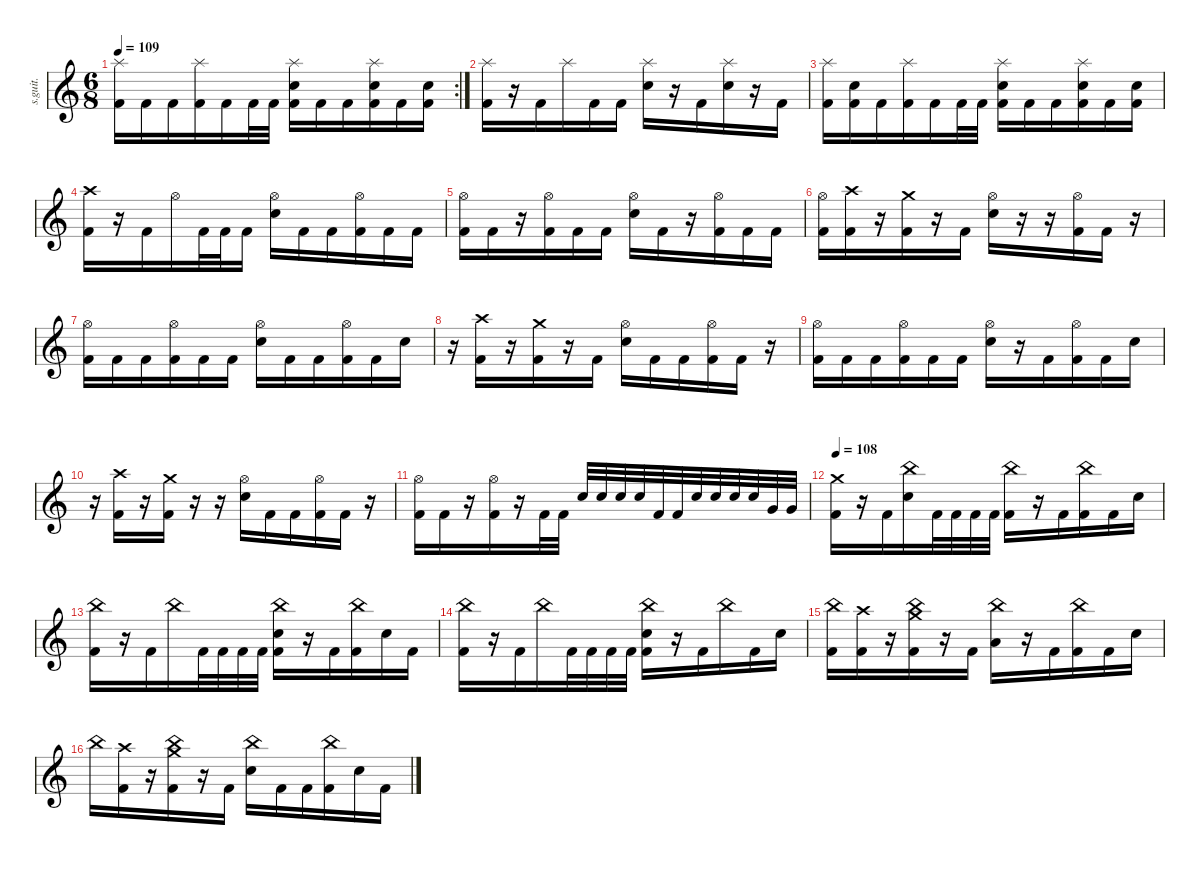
\defaultSystemsLayout 4
\hideDynamics
\bracketExtendMode nobrackets
\track ("Drumkit" "s.guit.") {instrument percussion}
\staff {score}
\articulation defaults
\rc 2
\ts (6 8)
\tempo 109
\clef g2
\ks c
("Splash (hit)" "Kick (hit) 2").16{lyrics (0 "") lyrics (1 "") lyrics (2 "") lyrics (3 "") lyrics (4 "") dy f} "Kick (hit) 2".16{lyrics (0 "") lyrics (1 "") lyrics (2 "") lyrics (3 "") lyrics (4 "")} "Kick (hit) 2".16{lyrics (0 "") lyrics (1 "") lyrics (2 "") lyrics (3 "") lyrics (4 "")} ("Splash (hit)" "Kick (hit) 2").16{lyrics (0 "") lyrics (1 "") lyrics (2 "") lyrics (3 "") lyrics (4 "")} "Kick (hit) 2".16{lyrics (0 "") lyrics (1 "") lyrics (2 "") lyrics (3 "") lyrics (4 "")} "Kick (hit) 2".32{lyrics (0 "") lyrics (1 "") lyrics (2 "") lyrics (3 "") lyrics (4 "")} "Kick (hit) 2".32{lyrics (0 "") lyrics (1 "") lyrics (2 "") lyrics (3 "") lyrics (4 "")} ("Splash (hit)" "Electric Snare (hit)" "Kick (hit) 2").16{lyrics (0 "") lyrics (1 "") lyrics (2 "") lyrics (3 "") lyrics (4 "")} "Kick (hit) 2".16{lyrics (0 "") lyrics (1 "") lyrics (2 "") lyrics (3 "") lyrics (4 "")} "Kick (hit) 2".16{lyrics (0 "") lyrics (1 "") lyrics (2 "") lyrics (3 "") lyrics (4 "")} ("Splash (hit)" "Electric Snare (hit)" "Kick (hit) 2").16{lyrics (0 "") lyrics (1 "") lyrics (2 "") lyrics (3 "") lyrics (4 "")} "Kick (hit) 2".16{lyrics (0 "") lyrics (1 "") lyrics (2 "") lyrics (3 "") lyrics (4 "")} ("Electric Snare (hit)" "Kick (hit) 2").16{lyrics (0 "") lyrics (1 "") lyrics (2 "") lyrics (3 "") lyrics (4 "")} |
("Splash (hit)" "Kick (hit) 2").16{lyrics (0 "") lyrics (1 "") lyrics (2 "") lyrics (3 "") lyrics (4 "")} r.16 "Kick (hit) 2".16{lyrics (0 "") lyrics (1 "") lyrics (2 "") lyrics (3 "") lyrics (4 "")} "Splash (hit)".16{lyrics (0 "") lyrics (1 "") lyrics (2 "") lyrics (3 "") lyrics (4 "")} "Kick (hit) 2".16{lyrics (0 "") lyrics (1 "") lyrics (2 "") lyrics (3 "") lyrics (4 "")} "Kick (hit) 2".16{lyrics (0 "") lyrics (1 "") lyrics (2 "") lyrics (3 "") lyrics (4 "")} ("Splash (hit)" "Electric Snare (hit)").16{lyrics (0 "") lyrics (1 "") lyrics (2 "") lyrics (3 "") lyrics (4 "")} r.16 "Kick (hit) 2".16{lyrics (0 "") lyrics (1 "") lyrics (2 "") lyrics (3 "") lyrics (4 "")} ("Splash (hit)" "Electric Snare (hit)").16{lyrics (0 "") lyrics (1 "") lyrics (2 "") lyrics (3 "") lyrics (4 "")} r.16 "Kick (hit) 2".16{lyrics (0 "") lyrics (1 "") lyrics (2 "") lyrics (3 "") lyrics (4 "")} |
("Splash (hit)" "Kick (hit) 2").16{lyrics (0 "") lyrics (1 "") lyrics (2 "") lyrics (3 "") lyrics (4 "")} ("Electric Snare (hit)" "Kick (hit) 2").16{lyrics (0 "") lyrics (1 "") lyrics (2 "") lyrics (3 "") lyrics (4 "")} "Kick (hit) 2".16{lyrics (0 "") lyrics (1 "") lyrics (2 "") lyrics (3 "") lyrics (4 "")} ("Splash (hit)" "Kick (hit) 2").16{lyrics (0 "") lyrics (1 "") lyrics (2 "") lyrics (3 "") lyrics (4 "")} "Kick (hit) 2".16{lyrics (0 "") lyrics (1 "") lyrics (2 "") lyrics (3 "") lyrics (4 "")} "Kick (hit) 2".32{lyrics (0 "") lyrics (1 "") lyrics (2 "") lyrics (3 "") lyrics (4 "")} "Kick (hit) 2".32{lyrics (0 "") lyrics (1 "") lyrics (2 "") lyrics (3 "") lyrics (4 "")} ("Splash (hit)" "Electric Snare (hit)" "Kick (hit) 2").16{lyrics (0 "") lyrics (1 "") lyrics (2 "") lyrics (3 "") lyrics (4 "")} "Kick (hit) 2".16{lyrics (0 "") lyrics (1 "") lyrics (2 "") lyrics (3 "") lyrics (4 "")} "Kick (hit) 2".16{lyrics (0 "") lyrics (1 "") lyrics (2 "") lyrics (3 "") lyrics (4 "")} ("Splash (hit)" "Electric Snare (hit)" "Kick (hit) 2").16{lyrics (0 "") lyrics (1 "") lyrics (2 "") lyrics (3 "") lyrics (4 "")} "Kick (hit) 2".16{lyrics (0 "") lyrics (1 "") lyrics (2 "") lyrics (3 "") lyrics (4 "")} ("Electric Snare (hit)" "Kick (hit) 2").16{lyrics (0 "") lyrics (1 "") lyrics (2 "") lyrics (3 "") lyrics (4 "")} |
("Crash high (hit)" "Kick (hit) 2").16{lyrics (0 "") lyrics (1 "") lyrics (2 "") lyrics (3 "") lyrics (4 "")} r.16 "Kick (hit) 2".16{lyrics (0 "") lyrics (1 "") lyrics (2 "") lyrics (3 "") lyrics (4 "")} "Hi-Hat (open)".16{lyrics (0 "") lyrics (1 "") lyrics (2 "") lyrics (3 "") lyrics (4 "")} "Kick (hit) 2".32{lyrics (0 "") lyrics (1 "") lyrics (2 "") lyrics (3 "") lyrics (4 "")} "Kick (hit) 2".32{lyrics (0 "") lyrics (1 "") lyrics (2 "") lyrics (3 "") lyrics (4 "")} "Kick (hit) 2".16{lyrics (0 "") lyrics (1 "") lyrics (2 "") lyrics (3 "") lyrics (4 "")} ("Hi-Hat (open)" "Electric Snare (hit)").16{lyrics (0 "") lyrics (1 "") lyrics (2 "") lyrics (3 "") lyrics (4 "")} "Kick (hit) 2".16{lyrics (0 "") lyrics (1 "") lyrics (2 "") lyrics (3 "") lyrics (4 "")} "Kick (hit) 2".16{lyrics (0 "") lyrics (1 "") lyrics (2 "") lyrics (3 "") lyrics (4 "")} ("Hi-Hat (open)" "Kick (hit) 2").16{lyrics (0 "") lyrics (1 "") lyrics (2 "") lyrics (3 "") lyrics (4 "")} "Kick (hit) 2".16{lyrics (0 "") lyrics (1 "") lyrics (2 "") lyrics (3 "") lyrics (4 "")} "Kick (hit) 2".16{lyrics (0 "") lyrics (1 "") lyrics (2 "") lyrics (3 "") lyrics (4 "")} |
("Hi-Hat (open)" "Kick (hit) 2").16{lyrics (0 "") lyrics (1 "") lyrics (2 "") lyrics (3 "") lyrics (4 "")} "Kick (hit) 2".16{lyrics (0 "") lyrics (1 "") lyrics (2 "") lyrics (3 "") lyrics (4 "")} r.16 ("Hi-Hat (open)" "Kick (hit) 2").16{lyrics (0 "") lyrics (1 "") lyrics (2 "") lyrics (3 "") lyrics (4 "")} "Kick (hit) 2".16{lyrics (0 "") lyrics (1 "") lyrics (2 "") lyrics (3 "") lyrics (4 "")} "Kick (hit) 2".16{lyrics (0 "") lyrics (1 "") lyrics (2 "") lyrics (3 "") lyrics (4 "")} ("Hi-Hat (open)" "Electric Snare (hit)").16{lyrics (0 "") lyrics (1 "") lyrics (2 "") lyrics (3 "") lyrics (4 "")} "Kick (hit) 2".16{lyrics (0 "") lyrics (1 "") lyrics (2 "") lyrics (3 "") lyrics (4 "")} r.16 ("Hi-Hat (open)" "Kick (hit) 2").16{lyrics (0 "") lyrics (1 "") lyrics (2 "") lyrics (3 "") lyrics (4 "")} "Kick (hit) 2".16{lyrics (0 "") lyrics (1 "") lyrics (2 "") lyrics (3 "") lyrics (4 "")} "Kick (hit) 2".16{lyrics (0 "") lyrics (1 "") lyrics (2 "") lyrics (3 "") lyrics (4 "")} |
("Hi-Hat (open)" "Kick (hit) 2").16{lyrics (0 "") lyrics (1 "") lyrics (2 "") lyrics (3 "") lyrics (4 "")} ("Crash high (hit)" "Kick (hit) 2").16{lyrics (0 "") lyrics (1 "") lyrics (2 "") lyrics (3 "") lyrics (4 "")} r.16 ("Crash medium (hit)" "Kick (hit) 2").16{lyrics (0 "") lyrics (1 "") lyrics (2 "") lyrics (3 "") lyrics (4 "")} r.16 "Kick (hit) 2".16{lyrics (0 "") lyrics (1 "") lyrics (2 "") lyrics (3 "") lyrics (4 "")} ("Hi-Hat (open)" "Electric Snare (hit)").16{lyrics (0 "") lyrics (1 "") lyrics (2 "") lyrics (3 "") lyrics (4 "")} r.16 r.16 ("Hi-Hat (open)" "Kick (hit) 2").16{lyrics (0 "") lyrics (1 "") lyrics (2 "") lyrics (3 "") lyrics (4 "")} "Kick (hit) 2".16{lyrics (0 "") lyrics (1 "") lyrics (2 "") lyrics (3 "") lyrics (4 "")} r.16 |
("Hi-Hat (open)" "Kick (hit) 2").16{lyrics (0 "") lyrics (1 "") lyrics (2 "") lyrics (3 "") lyrics (4 "")} "Kick (hit) 2".16{lyrics (0 "") lyrics (1 "") lyrics (2 "") lyrics (3 "") lyrics (4 "")} "Kick (hit) 2".16{lyrics (0 "") lyrics (1 "") lyrics (2 "") lyrics (3 "") lyrics (4 "")} ("Hi-Hat (open)" "Kick (hit) 2").16{lyrics (0 "") lyrics (1 "") lyrics (2 "") lyrics (3 "") lyrics (4 "")} "Kick (hit) 2".16{lyrics (0 "") lyrics (1 "") lyrics (2 "") lyrics (3 "") lyrics (4 "")} "Kick (hit) 2".16{lyrics (0 "") lyrics (1 "") lyrics (2 "") lyrics (3 "") lyrics (4 "")} ("Hi-Hat (open)" "Electric Snare (hit)").16{lyrics (0 "") lyrics (1 "") lyrics (2 "") lyrics (3 "") lyrics (4 "")} "Kick (hit) 2".16{lyrics (0 "") lyrics (1 "") lyrics (2 "") lyrics (3 "") lyrics (4 "")} "Kick (hit) 2".16{lyrics (0 "") lyrics (1 "") lyrics (2 "") lyrics (3 "") lyrics (4 "")} ("Hi-Hat (open)" "Kick (hit) 2").16{lyrics (0 "") lyrics (1 "") lyrics (2 "") lyrics (3 "") lyrics (4 "")} "Kick (hit) 2".16{lyrics (0 "") lyrics (1 "") lyrics (2 "") lyrics (3 "") lyrics (4 "")} "Electric Snare (hit)".16{lyrics (0 "") lyrics (1 "") lyrics (2 "") lyrics (3 "") lyrics (4 "")} |
r.16 ("Crash high (hit)" "Kick (hit) 2").16{lyrics (0 "") lyrics (1 "") lyrics (2 "") lyrics (3 "") lyrics (4 "")} r.16 ("Crash medium (hit)" "Kick (hit) 2").16{lyrics (0 "") lyrics (1 "") lyrics (2 "") lyrics (3 "") lyrics (4 "")} r.16 "Kick (hit) 2".16{lyrics (0 "") lyrics (1 "") lyrics (2 "") lyrics (3 "") lyrics (4 "")} ("Hi-Hat (open)" "Electric Snare (hit)").16{lyrics (0 "") lyrics (1 "") lyrics (2 "") lyrics (3 "") lyrics (4 "")} "Kick (hit) 2".16{lyrics (0 "") lyrics (1 "") lyrics (2 "") lyrics (3 "") lyrics (4 "")} "Kick (hit) 2".16{lyrics (0 "") lyrics (1 "") lyrics (2 "") lyrics (3 "") lyrics (4 "")} ("Hi-Hat (open)" "Kick (hit) 2").16{lyrics (0 "") lyrics (1 "") lyrics (2 "") lyrics (3 "") lyrics (4 "")} "Kick (hit) 2".16{lyrics (0 "") lyrics (1 "") lyrics (2 "") lyrics (3 "") lyrics (4 "")} r.16 |
("Hi-Hat (open)" "Kick (hit) 2").16{lyrics (0 "") lyrics (1 "") lyrics (2 "") lyrics (3 "") lyrics (4 "")} "Kick (hit) 2".16{lyrics (0 "") lyrics (1 "") lyrics (2 "") lyrics (3 "") lyrics (4 "")} "Kick (hit) 2".16{lyrics (0 "") lyrics (1 "") lyrics (2 "") lyrics (3 "") lyrics (4 "")} ("Hi-Hat (open)" "Kick (hit) 2").16{lyrics (0 "") lyrics (1 "") lyrics (2 "") lyrics (3 "") lyrics (4 "")} "Kick (hit) 2".16{lyrics (0 "") lyrics (1 "") lyrics (2 "") lyrics (3 "") lyrics (4 "")} "Kick (hit) 2".16{lyrics (0 "") lyrics (1 "") lyrics (2 "") lyrics (3 "") lyrics (4 "")} ("Hi-Hat (open)" "Electric Snare (hit)").16{lyrics (0 "") lyrics (1 "") lyrics (2 "") lyrics (3 "") lyrics (4 "")} r.16 "Kick (hit) 2".16{lyrics (0 "") lyrics (1 "") lyrics (2 "") lyrics (3 "") lyrics (4 "")} ("Hi-Hat (open)" "Kick (hit) 2").16{lyrics (0 "") lyrics (1 "") lyrics (2 "") lyrics (3 "") lyrics (4 "")} "Kick (hit) 2".16{lyrics (0 "") lyrics (1 "") lyrics (2 "") lyrics (3 "") lyrics (4 "")} "Electric Snare (hit)".16{lyrics (0 "") lyrics (1 "") lyrics (2 "") lyrics (3 "") lyrics (4 "")} |
r.16 ("Crash high (hit)" "Kick (hit) 2").16{lyrics (0 "") lyrics (1 "") lyrics (2 "") lyrics (3 "") lyrics (4 "")} r.16 ("Crash medium (hit)" "Kick (hit) 2").16{lyrics (0 "") lyrics (1 "") lyrics (2 "") lyrics (3 "") lyrics (4 "")} r.16 r.16 ("Hi-Hat (open)" "Electric Snare (hit)").16{lyrics (0 "") lyrics (1 "") lyrics (2 "") lyrics (3 "") lyrics (4 "")} "Kick (hit) 2".16{lyrics (0 "") lyrics (1 "") lyrics (2 "") lyrics (3 "") lyrics (4 "")} "Kick (hit) 2".16{lyrics (0 "") lyrics (1 "") lyrics (2 "") lyrics (3 "") lyrics (4 "")} ("Hi-Hat (open)" "Kick (hit) 2").16{lyrics (0 "") lyrics (1 "") lyrics (2 "") lyrics (3 "") lyrics (4 "")} "Kick (hit) 2".16{lyrics (0 "") lyrics (1 "") lyrics (2 "") lyrics (3 "") lyrics (4 "")} r.16 |
("Hi-Hat (open)" "Kick (hit) 2").16{lyrics (0 "") lyrics (1 "") lyrics (2 "") lyrics (3 "") lyrics (4 "")} "Kick (hit) 2".16{lyrics (0 "") lyrics (1 "") lyrics (2 "") lyrics (3 "") lyrics (4 "")} r.16 ("Hi-Hat (open)" "Kick (hit) 2").16{lyrics (0 "") lyrics (1 "") lyrics (2 "") lyrics (3 "") lyrics (4 "")} r.16 "Kick (hit) 2".32{lyrics (0 "") lyrics (1 "") lyrics (2 "") lyrics (3 "") lyrics (4 "")} "Kick (hit) 2".32{lyrics (0 "") lyrics (1 "") lyrics (2 "") lyrics (3 "") lyrics (4 "")} "Electric Snare (hit)".32{lyrics (0 "") lyrics (1 "") lyrics (2 "") lyrics (3 "") lyrics (4 "")} "Electric Snare (hit)".32{lyrics (0 "") lyrics (1 "") lyrics (2 "") lyrics (3 "") lyrics (4 "")} "Electric Snare (hit)".32{lyrics (0 "") lyrics (1 "") lyrics (2 "") lyrics (3 "") lyrics (4 "")} "Electric Snare (hit)".32{lyrics (0 "") lyrics (1 "") lyrics (2 "") lyrics (3 "") lyrics (4 "")} "Kick (hit) 2".32{lyrics (0 "") lyrics (1 "") lyrics (2 "") lyrics (3 "") lyrics (4 "")} "Kick (hit) 2".32{lyrics (0 "") lyrics (1 "") lyrics (2 "") lyrics (3 "") lyrics (4 "")} "Electric Snare (hit)".32{lyrics (0 "") lyrics (1 "") lyrics (2 "") lyrics (3 "") lyrics (4 "")} "Electric Snare (hit)".32{lyrics (0 "") lyrics (1 "") lyrics (2 "") lyrics (3 "") lyrics (4 "")} "Electric Snare (hit)".32{lyrics (0 "") lyrics (1 "") lyrics (2 "") lyrics (3 "") lyrics (4 "")} "Electric Snare (hit)".32{lyrics (0 "") lyrics (1 "") lyrics (2 "") lyrics (3 "") lyrics (4 "")} "Very Low Tom (hit)".32{lyrics (0 "") lyrics (1 "") lyrics (2 "") lyrics (3 "") lyrics (4 "")} "Very Low Tom (hit)".32{lyrics (0 "") lyrics (1 "") lyrics (2 "") lyrics (3 "") lyrics (4 "")} |
\tempo 108
("Crash medium (hit)" "Kick (hit) 2").16{lyrics (0 "") lyrics (1 "") lyrics (2 "") lyrics (3 "") lyrics (4 "")} r.16 "Kick (hit) 2".16{lyrics (0 "") lyrics (1 "") lyrics (2 "") lyrics (3 "") lyrics (4 "")} ("China (hit)" "Electric Snare (hit)").16{lyrics (0 "") lyrics (1 "") lyrics (2 "") lyrics (3 "") lyrics (4 "")} "Kick (hit) 2".32{lyrics (0 "") lyrics (1 "") lyrics (2 "") lyrics (3 "") lyrics (4 "")} "Kick (hit) 2".32{lyrics (0 "") lyrics (1 "") lyrics (2 "") lyrics (3 "") lyrics (4 "")} "Kick (hit) 2".32{lyrics (0 "") lyrics (1 "") lyrics (2 "") lyrics (3 "") lyrics (4 "")} "Kick (hit) 2".32{lyrics (0 "") lyrics (1 "") lyrics (2 "") lyrics (3 "") lyrics (4 "")} ("China (hit)" "Kick (hit) 2").16{lyrics (0 "") lyrics (1 "") lyrics (2 "") lyrics (3 "") lyrics (4 "")} r.16 "Kick (hit) 2".16{lyrics (0 "") lyrics (1 "") lyrics (2 "") lyrics (3 "") lyrics (4 "")} ("China (hit)" "Kick (hit) 2").16{lyrics (0 "") lyrics (1 "") lyrics (2 "") lyrics (3 "") lyrics (4 "")} "Kick (hit) 2".16{lyrics (0 "") lyrics (1 "") lyrics (2 "") lyrics (3 "") lyrics (4 "")} "Electric Snare (hit)".16{lyrics (0 "") lyrics (1 "") lyrics (2 "") lyrics (3 "") lyrics (4 "")} |
("China (hit)" "Kick (hit) 2").16{lyrics (0 "") lyrics (1 "") lyrics (2 "") lyrics (3 "") lyrics (4 "")} r.16 "Kick (hit) 2".16{lyrics (0 "") lyrics (1 "") lyrics (2 "") lyrics (3 "") lyrics (4 "")} "China (hit)".16{lyrics (0 "") lyrics (1 "") lyrics (2 "") lyrics (3 "") lyrics (4 "")} "Kick (hit) 2".32{lyrics (0 "") lyrics (1 "") lyrics (2 "") lyrics (3 "") lyrics (4 "")} "Kick (hit) 2".32{lyrics (0 "") lyrics (1 "") lyrics (2 "") lyrics (3 "") lyrics (4 "")} "Kick (hit) 2".32{lyrics (0 "") lyrics (1 "") lyrics (2 "") lyrics (3 "") lyrics (4 "")} "Kick (hit) 2".32{lyrics (0 "") lyrics (1 "") lyrics (2 "") lyrics (3 "") lyrics (4 "")} ("China (hit)" "Electric Snare (hit)" "Kick (hit) 2").16{lyrics (0 "") lyrics (1 "") lyrics (2 "") lyrics (3 "") lyrics (4 "")} r.16 "Kick (hit) 2".16{lyrics (0 "") lyrics (1 "") lyrics (2 "") lyrics (3 "") lyrics (4 "")} ("China (hit)" "Kick (hit) 2").16{lyrics (0 "") lyrics (1 "") lyrics (2 "") lyrics (3 "") lyrics (4 "")} "Electric Snare (hit)".16{lyrics (0 "") lyrics (1 "") lyrics (2 "") lyrics (3 "") lyrics (4 "")} "Kick (hit) 2".16{lyrics (0 "") lyrics (1 "") lyrics (2 "") lyrics (3 "") lyrics (4 "")} |
("China (hit)" "Kick (hit) 2").16{lyrics (0 "") lyrics (1 "") lyrics (2 "") lyrics (3 "") lyrics (4 "")} r.16 "Kick (hit) 2".16{lyrics (0 "") lyrics (1 "") lyrics (2 "") lyrics (3 "") lyrics (4 "")} "China (hit)".16{lyrics (0 "") lyrics (1 "") lyrics (2 "") lyrics (3 "") lyrics (4 "")} "Kick (hit) 2".32{lyrics (0 "") lyrics (1 "") lyrics (2 "") lyrics (3 "") lyrics (4 "")} "Kick (hit) 2".32{lyrics (0 "") lyrics (1 "") lyrics (2 "") lyrics (3 "") lyrics (4 "")} "Kick (hit) 2".32{lyrics (0 "") lyrics (1 "") lyrics (2 "") lyrics (3 "") lyrics (4 "")} "Kick (hit) 2".32{lyrics (0 "") lyrics (1 "") lyrics (2 "") lyrics (3 "") lyrics (4 "")} ("China (hit)" "Electric Snare (hit)" "Kick (hit) 2").16{lyrics (0 "") lyrics (1 "") lyrics (2 "") lyrics (3 "") lyrics (4 "")} r.16 "Kick (hit) 2".16{lyrics (0 "") lyrics (1 "") lyrics (2 "") lyrics (3 "") lyrics (4 "")} "China (hit)".16{lyrics (0 "") lyrics (1 "") lyrics (2 "") lyrics (3 "") lyrics (4 "")} "Kick (hit) 2".16{lyrics (0 "") lyrics (1 "") lyrics (2 "") lyrics (3 "") lyrics (4 "")} "Electric Snare (hit)".16{lyrics (0 "") lyrics (1 "") lyrics (2 "") lyrics (3 "") lyrics (4 "")} |
("China (hit)" "Kick (hit) 2").16{lyrics (0 "") lyrics (1 "") lyrics (2 "") lyrics (3 "") lyrics (4 "")} ("Crash high (hit)" "Kick (hit) 2").16{lyrics (0 "") lyrics (1 "") lyrics (2 "") lyrics (3 "") lyrics (4 "")} r.16 ("Crash medium (hit)" "China (hit)" "Kick (hit) 2").16{lyrics (0 "") lyrics (1 "") lyrics (2 "") lyrics (3 "") lyrics (4 "")} r.16 "Kick (hit) 2".16{lyrics (0 "") lyrics (1 "") lyrics (2 "") lyrics (3 "") lyrics (4 "")} ("China (hit)" "Low Tom (hit)").16{lyrics (0 "") lyrics (1 "") lyrics (2 "") lyrics (3 "") lyrics (4 "")} r.16 "Kick (hit) 2".16{lyrics (0 "") lyrics (1 "") lyrics (2 "") lyrics (3 "") lyrics (4 "")} ("China (hit)" "Kick (hit) 2").16{lyrics (0 "") lyrics (1 "") lyrics (2 "") lyrics (3 "") lyrics (4 "")} "Kick (hit) 2".16{lyrics (0 "") lyrics (1 "") lyrics (2 "") lyrics (3 "") lyrics (4 "")} "Electric Snare (hit)".16{lyrics (0 "") lyrics (1 "") lyrics (2 "") lyrics (3 "") lyrics (4 "")} |
"China (hit)".16{lyrics (0 "") lyrics (1 "") lyrics (2 "") lyrics (3 "") lyrics (4 "")} ("Crash high (hit)" "Kick (hit) 2").16{lyrics (0 "") lyrics (1 "") lyrics (2 "") lyrics (3 "") lyrics (4 "")} r.16 ("Crash medium (hit)" "China (hit)" "Kick (hit) 2").16{lyrics (0 "") lyrics (1 "") lyrics (2 "") lyrics (3 "") lyrics (4 "")} r.16 "Kick (hit) 2".16{lyrics (0 "") lyrics (1 "") lyrics (2 "") lyrics (3 "") lyrics (4 "")} ("China (hit)" "Electric Snare (hit)").16{lyrics (0 "") lyrics (1 "") lyrics (2 "") lyrics (3 "") lyrics (4 "")} "Kick (hit) 2".16{lyrics (0 "") lyrics (1 "") lyrics (2 "") lyrics (3 "") lyrics (4 "")} "Kick (hit) 2".16{lyrics (0 "") lyrics (1 "") lyrics (2 "") lyrics (3 "") lyrics (4 "")} ("China (hit)" "Kick (hit) 2").16{lyrics (0 "") lyrics (1 "") lyrics (2 "") lyrics (3 "") lyrics (4 "")} "Electric Snare (hit)".16{lyrics (0 "") lyrics (1 "") lyrics (2 "") lyrics (3 "") lyrics (4 "")} "Kick (hit) 2".16{lyrics (0 "") lyrics (1 "") lyrics (2 "") lyrics (3 "") lyrics (4 "")}
